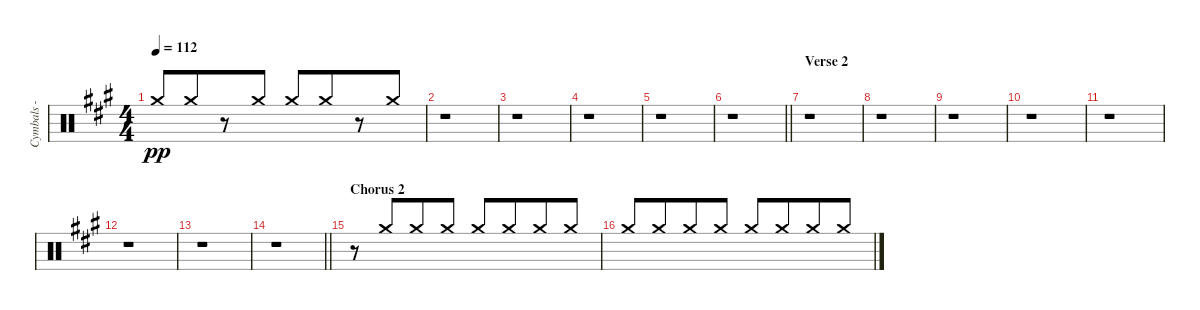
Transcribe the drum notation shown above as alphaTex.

\track ("Cymbals - ride" "Cymbals - ") {instrument percussion}
\staff {score}
\articulation defaults
\ts (4 4)
\tempo 112
\clef neutral
\ks f#minor "Crash medium (hit)".8{dy pp beam Up} "Crash medium (hit)".8{beam Up beam merge}
r.8{beam Up} "Crash medium (hit)".8{beam Up} "Crash medium (hit)".8{beam Up} "Crash medium (hit)".8{beam Up beam merge} r.8{beam Up} "Crash medium (hit)".8{beam Up} |
r.1 |
r.1 |
r.1 |
r.1 |
\barLineRight lightlight
r.1 |
\section ("" "Verse 2")
r.1 |
r.1 |
r.1 |
r.1 |
r.1 |
r.1 |
r.1 |
\barLineRight lightlight
r.1 |
\section ("" "Chorus 2")
r.8 "Crash medium (hit)".8{beam Up beam merge} "Crash medium (hit)".8{beam Up} "Crash medium (hit)".8{beam Up} "Crash medium (hit)".8{beam Up} "Crash medium (hit)".8{beam Up beam merge} "Crash medium (hit)".8{beam Up} "Crash medium (hit)".8{beam Up} |
"Crash medium (hit)".8{beam Up} "Crash medium (hit)".8{beam Up beam merge} "Crash medium (hit)".8{beam Up} "Crash medium (hit)".8{beam Up} "Crash medium (hit)".8{beam Up} "Crash medium (hit)".8{beam Up beam merge} "Crash medium (hit)".8{beam Up} "Crash medium (hit)".8{beam Up}
